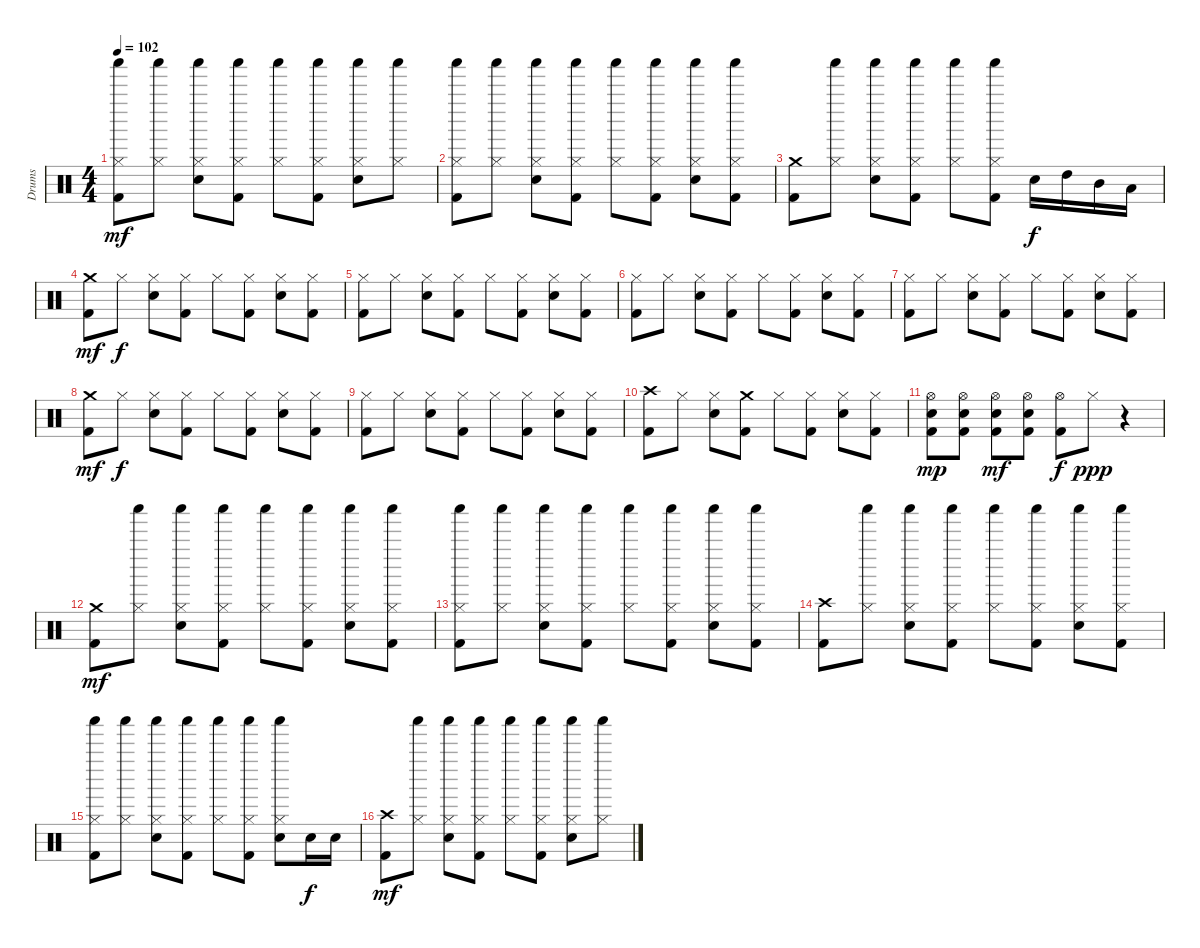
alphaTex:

\track ("Drums" "Drums") {instrument percussion}
\staff {score}
\articulation defaults
\ts (4 4)
\tempo 102
\clef neutral
\ks c
("Kick (hit) 2" "Hi-Hat (closed)" "Shaker (hit)").8{dy mf} ("Hi-Hat (closed)" "Shaker (hit)").8 ("Electric Snare (hit)" "Hi-Hat (closed)" "Shaker (hit)").8 ("Kick (hit) 2" "Hi-Hat (closed)" "Shaker (hit)").8 ("Hi-Hat (closed)" "Shaker (hit)").8 ("Kick (hit) 2" "Hi-Hat (closed)" "Shaker (hit)").8 ("Electric Snare (hit)" "Hi-Hat (closed)" "Shaker (hit)").8 ("Hi-Hat (closed)" "Shaker (hit)").8 |
("Kick (hit) 2" "Hi-Hat (closed)" "Shaker (hit)").8 ("Hi-Hat (closed)" "Shaker (hit)").8 ("Electric Snare (hit)" "Hi-Hat (closed)" "Shaker (hit)").8 ("Kick (hit) 2" "Hi-Hat (closed)" "Shaker (hit)").8 ("Hi-Hat (closed)" "Shaker (hit)").8 ("Kick (hit) 2" "Hi-Hat (closed)" "Shaker (hit)").8 ("Electric Snare (hit)" "Hi-Hat (closed)" "Shaker (hit)").8 ("Kick (hit) 2" "Hi-Hat (closed)" "Shaker (hit)").8 |
("Kick (hit) 2" "Crash medium (hit)").8 ("Hi-Hat (closed)" "Shaker (hit)").8 ("Electric Snare (hit)" "Hi-Hat (closed)" "Shaker (hit)").8 ("Kick (hit) 2" "Hi-Hat (closed)" "Shaker (hit)").8 ("Hi-Hat (closed)" "Shaker (hit)").8 ("Kick (hit) 2" "Hi-Hat (closed)" "Shaker (hit)").8 "Electric Snare (hit)".16{dy f} "High Tom (hit)".16 "Mid Tom (hit)".16 "Low Tom (hit)".16 |
("Kick (hit) 2" "Crash medium (hit)").8{dy mf} "Hi-Hat (closed)".8{dy f} ("Electric Snare (hit)" "Hi-Hat (closed)").8 ("Kick (hit) 2" "Hi-Hat (closed)").8 "Hi-Hat (closed)".8 ("Kick (hit) 2" "Hi-Hat (closed)").8 ("Electric Snare (hit)" "Hi-Hat (closed)").8 ("Kick (hit) 2" "Hi-Hat (closed)").8 |
("Kick (hit) 2" "Hi-Hat (closed)").8 "Hi-Hat (closed)".8 ("Electric Snare (hit)" "Hi-Hat (closed)").8 ("Kick (hit) 2" "Hi-Hat (closed)").8 "Hi-Hat (closed)".8 ("Kick (hit) 2" "Hi-Hat (closed)").8 ("Electric Snare (hit)" "Hi-Hat (closed)").8 ("Kick (hit) 2" "Hi-Hat (closed)").8 |
("Kick (hit) 2" "Hi-Hat (closed)").8 "Hi-Hat (closed)".8 ("Electric Snare (hit)" "Hi-Hat (closed)").8 ("Kick (hit) 2" "Hi-Hat (closed)").8 "Hi-Hat (closed)".8 ("Kick (hit) 2" "Hi-Hat (closed)").8 ("Electric Snare (hit)" "Hi-Hat (closed)").8 ("Kick (hit) 2" "Hi-Hat (closed)").8 |
("Kick (hit) 2" "Hi-Hat (closed)").8 "Hi-Hat (closed)".8 ("Electric Snare (hit)" "Hi-Hat (closed)").8 ("Kick (hit) 2" "Hi-Hat (closed)").8 "Hi-Hat (closed)".8 ("Kick (hit) 2" "Hi-Hat (closed)").8 ("Electric Snare (hit)" "Hi-Hat (closed)").8 ("Kick (hit) 2" "Hi-Hat (closed)").8 |
("Kick (hit) 2" "Crash medium (hit)").8{dy mf} "Hi-Hat (closed)".8{dy f} ("Electric Snare (hit)" "Hi-Hat (closed)").8 ("Kick (hit) 2" "Hi-Hat (closed)").8 "Hi-Hat (closed)".8 ("Kick (hit) 2" "Hi-Hat (closed)").8 ("Electric Snare (hit)" "Hi-Hat (closed)").8 ("Kick (hit) 2" "Hi-Hat (closed)").8 |
("Kick (hit) 2" "Hi-Hat (closed)").8 "Hi-Hat (closed)".8 ("Electric Snare (hit)" "Hi-Hat (closed)").8 ("Kick (hit) 2" "Hi-Hat (closed)").8 "Hi-Hat (closed)".8 ("Kick (hit) 2" "Hi-Hat (closed)").8 ("Electric Snare (hit)" "Hi-Hat (closed)").8 ("Kick (hit) 2" "Hi-Hat (closed)").8 |
("Kick (hit) 2" "Crash high (hit)").8 "Hi-Hat (closed)".8 ("Electric Snare (hit)" "Hi-Hat (closed)").8 ("Kick (hit) 2" "Crash medium (hit)").8 "Hi-Hat (closed)".8 ("Kick (hit) 2" "Hi-Hat (closed)").8 ("Electric Snare (hit)" "Hi-Hat (closed)").8 ("Kick (hit) 2" "Hi-Hat (closed)").8 |
("Kick (hit) 2" "Electric Snare (hit)" "Hi-Hat (open)").8{dy mp} ("Kick (hit) 2" "Electric Snare (hit)" "Hi-Hat (open)").8 ("Kick (hit) 2" "Electric Snare (hit)" "Hi-Hat (open)").8{dy mf} ("Kick (hit) 2" "Electric Snare (hit)" "Hi-Hat (open)").8 ("Kick (hit) 2" "Hi-Hat (open)").8{dy f} "Hi-Hat (closed)".8{dy ppp} r.4 |
("Kick (hit) 2" "Crash medium (hit)").8{dy mf} ("Hi-Hat (closed)" "Shaker (hit)").8 ("Electric Snare (hit)" "Hi-Hat (closed)" "Shaker (hit)").8 ("Kick (hit) 2" "Hi-Hat (closed)" "Shaker (hit)").8 ("Hi-Hat (closed)" "Shaker (hit)").8 ("Kick (hit) 2" "Hi-Hat (closed)" "Shaker (hit)").8 ("Electric Snare (hit)" "Hi-Hat (closed)" "Shaker (hit)").8 ("Kick (hit) 2" "Hi-Hat (closed)" "Shaker (hit)").8 |
("Kick (hit) 2" "Hi-Hat (closed)" "Shaker (hit)").8 ("Hi-Hat (closed)" "Shaker (hit)").8 ("Electric Snare (hit)" "Hi-Hat (closed)" "Shaker (hit)").8 ("Kick (hit) 2" "Hi-Hat (closed)" "Shaker (hit)").8 ("Hi-Hat (closed)" "Shaker (hit)").8 ("Kick (hit) 2" "Hi-Hat (closed)" "Shaker (hit)").8 ("Electric Snare (hit)" "Hi-Hat (closed)" "Shaker (hit)").8 ("Kick (hit) 2" "Hi-Hat (closed)" "Shaker (hit)").8 |
("Kick (hit) 2" "Crash high (hit)").8 ("Hi-Hat (closed)" "Shaker (hit)").8 ("Electric Snare (hit)" "Hi-Hat (closed)" "Shaker (hit)").8 ("Kick (hit) 2" "Hi-Hat (closed)" "Shaker (hit)").8 ("Hi-Hat (closed)" "Shaker (hit)").8 ("Kick (hit) 2" "Hi-Hat (closed)" "Shaker (hit)").8 ("Electric Snare (hit)" "Hi-Hat (closed)" "Shaker (hit)").8 ("Kick (hit) 2" "Hi-Hat (closed)" "Shaker (hit)").8 |
("Kick (hit) 2" "Hi-Hat (closed)" "Shaker (hit)").8 ("Hi-Hat (closed)" "Shaker (hit)").8 ("Electric Snare (hit)" "Hi-Hat (closed)" "Shaker (hit)").8 ("Kick (hit) 2" "Hi-Hat (closed)" "Shaker (hit)").8 ("Hi-Hat (closed)" "Shaker (hit)").8 ("Kick (hit) 2" "Hi-Hat (closed)" "Shaker (hit)").8 ("Electric Snare (hit)" "Hi-Hat (closed)" "Shaker (hit)").8 "Electric Snare (hit)".16{dy f} "Electric Snare (hit)".16 |
("Kick (hit) 2" "Crash high (hit)").8{dy mf} ("Hi-Hat (closed)" "Shaker (hit)").8 ("Electric Snare (hit)" "Hi-Hat (closed)" "Shaker (hit)").8 ("Kick (hit) 2" "Hi-Hat (closed)" "Shaker (hit)").8 ("Hi-Hat (closed)" "Shaker (hit)").8 ("Kick (hit) 2" "Hi-Hat (closed)" "Shaker (hit)").8 ("Electric Snare (hit)" "Hi-Hat (closed)" "Shaker (hit)").8 ("Hi-Hat (closed)" "Shaker (hit)").8
